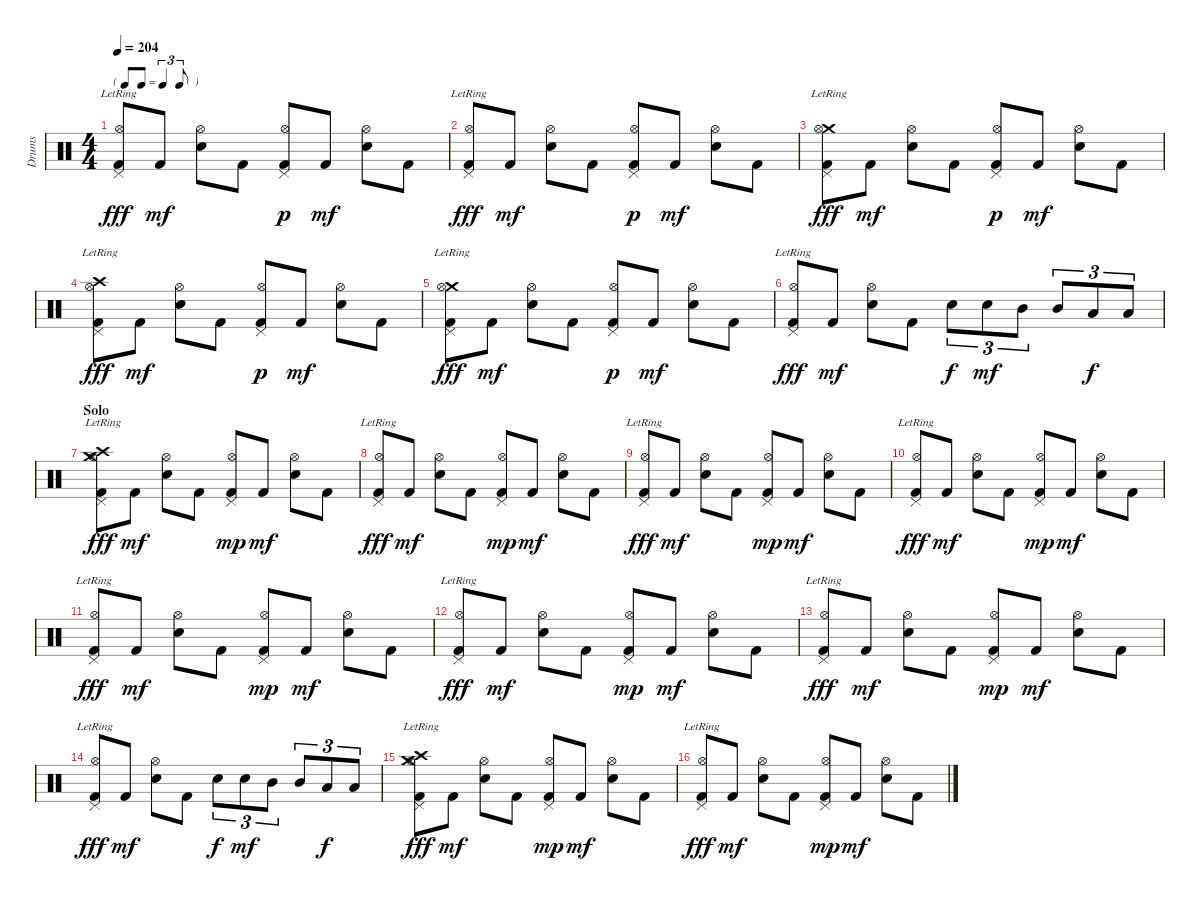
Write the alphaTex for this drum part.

\track ("Drums" "Drums") {instrument percussion}
\staff {score}
\articulation defaults
\ts (4 4)
\tf triplet8th
\tempo 204
\clef neutral
\ks c
("Pedal Hi-Hat (hit)" "Hi-Hat (open)" "Kick (hit) 2"{lr}).8{dy fff} "Kick (hit) 2".8{dy mf} ("Hi-Hat (open)" "Electric Snare (hit)").8 "Kick (hit) 2".8 ("Pedal Hi-Hat (hit)" "Hi-Hat (open)" "Kick (hit) 2").8{dy p} "Kick (hit) 2".8{dy mf} ("Hi-Hat (open)" "Electric Snare (hit)").8 "Kick (hit) 2".8 |
("Pedal Hi-Hat (hit)" "Hi-Hat (open)" "Kick (hit) 2"{lr}).8{dy fff} "Kick (hit) 2".8{dy mf} ("Hi-Hat (open)" "Electric Snare (hit)").8 "Kick (hit) 2".8 ("Pedal Hi-Hat (hit)" "Hi-Hat (open)" "Kick (hit) 2").8{dy p} "Kick (hit) 2".8{dy mf} ("Hi-Hat (open)" "Electric Snare (hit)").8 "Kick (hit) 2".8 |
("Crash medium (hit)" "Pedal Hi-Hat (hit)" "Hi-Hat (open)" "Kick (hit) 2"{lr}).8{dy fff} "Kick (hit) 2".8{dy mf} ("Hi-Hat (open)" "Electric Snare (hit)").8 "Kick (hit) 2".8 ("Pedal Hi-Hat (hit)" "Hi-Hat (open)" "Kick (hit) 2").8{dy p} "Kick (hit) 2".8{dy mf} ("Hi-Hat (open)" "Electric Snare (hit)").8 "Kick (hit) 2".8 |
("Crash high (hit)" "Pedal Hi-Hat (hit)" "Hi-Hat (open)" "Kick (hit) 2"{lr}).8{dy fff} "Kick (hit) 2".8{dy mf} ("Hi-Hat (open)" "Electric Snare (hit)").8 "Kick (hit) 2".8 ("Pedal Hi-Hat (hit)" "Hi-Hat (open)" "Kick (hit) 2").8{dy p} "Kick (hit) 2".8{dy mf} ("Hi-Hat (open)" "Electric Snare (hit)").8 "Kick (hit) 2".8 |
("Crash medium (hit)" "Pedal Hi-Hat (hit)" "Hi-Hat (open)" "Kick (hit) 2"{lr}).8{dy fff} "Kick (hit) 2".8{dy mf} ("Hi-Hat (open)" "Electric Snare (hit)").8 "Kick (hit) 2".8 ("Pedal Hi-Hat (hit)" "Hi-Hat (open)" "Kick (hit) 2").8{dy p} "Kick (hit) 2".8{dy mf} ("Hi-Hat (open)" "Electric Snare (hit)").8 "Kick (hit) 2".8 |
("Pedal Hi-Hat (hit)" "Hi-Hat (open)" "Kick (hit) 2"{lr}).8{dy fff} "Kick (hit) 2".8{dy mf} ("Hi-Hat (open)" "Electric Snare (hit)").8 "Kick (hit) 2".8 "Electric Snare (hit)".8{tu (3 2) dy f} "Electric Snare (hit)".8{tu (3 2) dy mf} "Mid Tom (hit)".8{tu (3 2)} "Mid Tom (hit)".8{tu (3 2)} "Low Tom (hit)".8{tu (3 2) dy f} "Low Tom (hit)".8{tu (3 2)} |
\section ("" "Solo")
("Crash medium (hit)" "Crash high (hit)" "Pedal Hi-Hat (hit)" "Hi-Hat (open)" "Kick (hit) 2"{lr}).8{dy fff} "Kick (hit) 2".8{dy mf} ("Hi-Hat (open)" "Electric Snare (hit)").8 "Kick (hit) 2".8 ("Pedal Hi-Hat (hit)" "Hi-Hat (open)" "Kick (hit) 2").8{dy mp} "Kick (hit) 2".8{dy mf} ("Hi-Hat (open)" "Electric Snare (hit)").8 "Kick (hit) 2".8 |
("Pedal Hi-Hat (hit)" "Hi-Hat (open)" "Kick (hit) 2"{lr}).8{dy fff} "Kick (hit) 2".8{dy mf} ("Hi-Hat (open)" "Electric Snare (hit)").8 "Kick (hit) 2".8 ("Pedal Hi-Hat (hit)" "Hi-Hat (open)" "Kick (hit) 2").8{dy mp} "Kick (hit) 2".8{dy mf} ("Hi-Hat (open)" "Electric Snare (hit)").8 "Kick (hit) 2".8 |
("Pedal Hi-Hat (hit)" "Hi-Hat (open)" "Kick (hit) 2"{lr}).8{dy fff} "Kick (hit) 2".8{dy mf} ("Hi-Hat (open)" "Electric Snare (hit)").8 "Kick (hit) 2".8 ("Pedal Hi-Hat (hit)" "Hi-Hat (open)" "Kick (hit) 2").8{dy mp} "Kick (hit) 2".8{dy mf} ("Hi-Hat (open)" "Electric Snare (hit)").8 "Kick (hit) 2".8 |
("Pedal Hi-Hat (hit)" "Hi-Hat (open)" "Kick (hit) 2"{lr}).8{dy fff} "Kick (hit) 2".8{dy mf} ("Hi-Hat (open)" "Electric Snare (hit)").8 "Kick (hit) 2".8 ("Pedal Hi-Hat (hit)" "Hi-Hat (open)" "Kick (hit) 2").8{dy mp} "Kick (hit) 2".8{dy mf} ("Hi-Hat (open)" "Electric Snare (hit)").8 "Kick (hit) 2".8 |
("Pedal Hi-Hat (hit)" "Hi-Hat (open)" "Kick (hit) 2"{lr}).8{dy fff} "Kick (hit) 2".8{dy mf} ("Hi-Hat (open)" "Electric Snare (hit)").8 "Kick (hit) 2".8 ("Pedal Hi-Hat (hit)" "Hi-Hat (open)" "Kick (hit) 2").8{dy mp} "Kick (hit) 2".8{dy mf} ("Hi-Hat (open)" "Electric Snare (hit)").8 "Kick (hit) 2".8 |
("Pedal Hi-Hat (hit)" "Hi-Hat (open)" "Kick (hit) 2"{lr}).8{dy fff} "Kick (hit) 2".8{dy mf} ("Hi-Hat (open)" "Electric Snare (hit)").8 "Kick (hit) 2".8 ("Pedal Hi-Hat (hit)" "Hi-Hat (open)" "Kick (hit) 2").8{dy mp} "Kick (hit) 2".8{dy mf} ("Hi-Hat (open)" "Electric Snare (hit)").8 "Kick (hit) 2".8 |
("Pedal Hi-Hat (hit)" "Hi-Hat (open)" "Kick (hit) 2"{lr}).8{dy fff} "Kick (hit) 2".8{dy mf} ("Hi-Hat (open)" "Electric Snare (hit)").8 "Kick (hit) 2".8 ("Pedal Hi-Hat (hit)" "Hi-Hat (open)" "Kick (hit) 2").8{dy mp} "Kick (hit) 2".8{dy mf} ("Hi-Hat (open)" "Electric Snare (hit)").8 "Kick (hit) 2".8 |
("Pedal Hi-Hat (hit)" "Hi-Hat (open)" "Kick (hit) 2"{lr}).8{dy fff} "Kick (hit) 2".8{dy mf} ("Hi-Hat (open)" "Electric Snare (hit)").8 "Kick (hit) 2".8 "Electric Snare (hit)".8{tu (3 2) dy f} "Electric Snare (hit)".8{tu (3 2) dy mf} "Mid Tom (hit)".8{tu (3 2)} "Mid Tom (hit)".8{tu (3 2)} "Low Tom (hit)".8{tu (3 2) dy f} "Low Tom (hit)".8{tu (3 2)} |
("Crash high (hit)" "Crash medium (hit)" "Pedal Hi-Hat (hit)" "Hi-Hat (open)" "Kick (hit) 2"{lr}).8{dy fff} "Kick (hit) 2".8{dy mf} ("Hi-Hat (open)" "Electric Snare (hit)").8 "Kick (hit) 2".8 ("Pedal Hi-Hat (hit)" "Hi-Hat (open)" "Kick (hit) 2").8{dy mp} "Kick (hit) 2".8{dy mf} ("Hi-Hat (open)" "Electric Snare (hit)").8 "Kick (hit) 2".8 |
("Pedal Hi-Hat (hit)" "Hi-Hat (open)" "Kick (hit) 2"{lr}).8{dy fff} "Kick (hit) 2".8{dy mf} ("Hi-Hat (open)" "Electric Snare (hit)").8 "Kick (hit) 2".8 ("Pedal Hi-Hat (hit)" "Hi-Hat (open)" "Kick (hit) 2").8{dy mp} "Kick (hit) 2".8{dy mf} ("Hi-Hat (open)" "Electric Snare (hit)").8 "Kick (hit) 2".8
